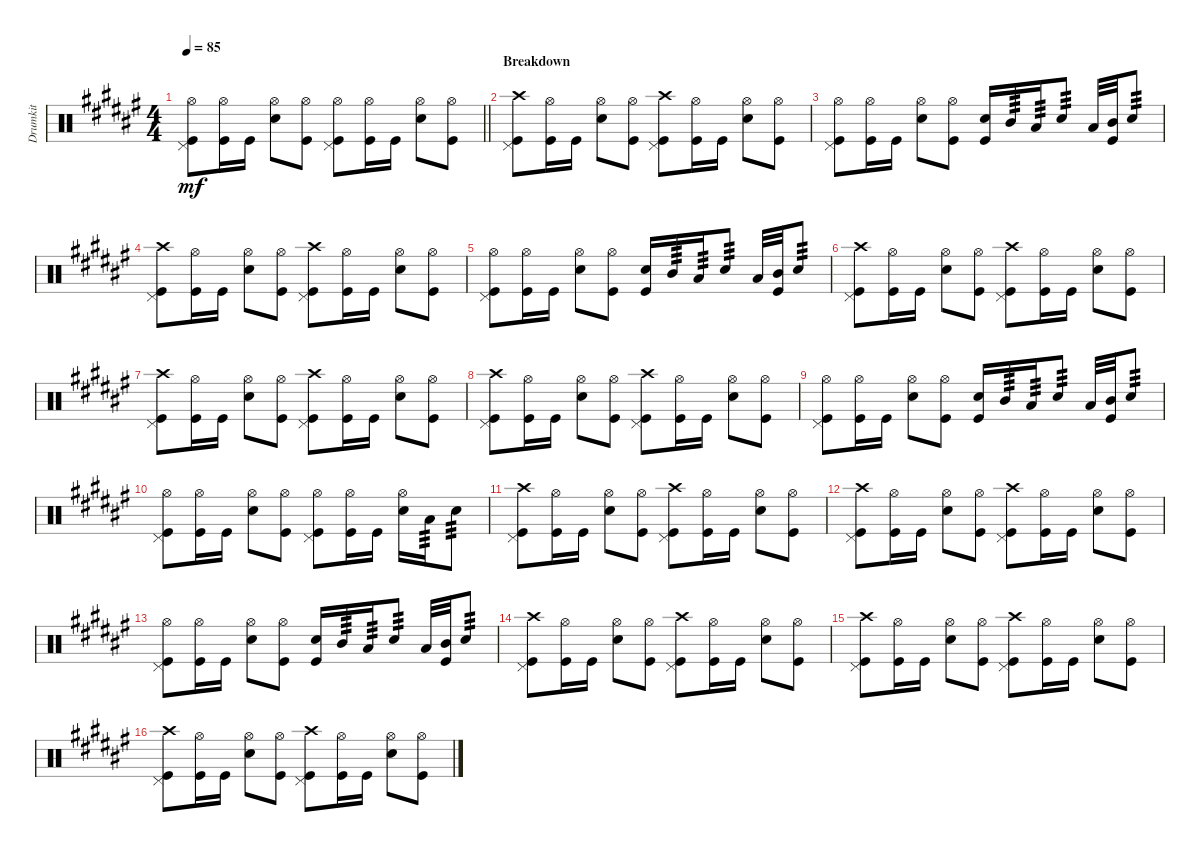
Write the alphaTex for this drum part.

\track ("Drumkit" "Drumkit") {instrument percussion}
\staff {score}
\articulation defaults
\ts (4 4)
\tempo 85
\clef neutral
\barLineRight lightlight
\ks f#
("Kick (hit)" "Pedal Hi-Hat (hit)" "Hi-Hat (open)").8{dy mf} ("Kick (hit)" "Hi-Hat (open)").16 "Kick (hit)".16 ("Snare (hit) 2" "Hi-Hat (open)").8 ("Kick (hit)" "Hi-Hat (open)").8 ("Kick (hit)" "Pedal Hi-Hat (hit)" "Hi-Hat (open)").8 ("Kick (hit)" "Hi-Hat (open)").16 "Kick (hit)".16 ("Snare (hit) 2" "Hi-Hat (open)").8 ("Kick (hit)" "Hi-Hat (open)").8 |
\section ("" "Breakdown")
("Kick (hit)" "Pedal Hi-Hat (hit)" "Crash high (hit)").8 ("Kick (hit)" "Hi-Hat (open)").16 "Kick (hit)".16 ("Snare (hit) 2" "Hi-Hat (open)").8 ("Kick (hit)" "Hi-Hat (open)").8 ("Kick (hit)" "Pedal Hi-Hat (hit)" "Crash high (hit)").8 ("Kick (hit)" "Hi-Hat (open)").16 "Kick (hit)".16 ("Snare (hit) 2" "Hi-Hat (open)").8 ("Kick (hit)" "Hi-Hat (open)").8 |
("Kick (hit)" "Pedal Hi-Hat (hit)" "Hi-Hat (open)").8 ("Kick (hit)" "Hi-Hat (open)").16 "Kick (hit)".16 ("Snare (hit) 2" "Hi-Hat (open)").8 ("Kick (hit)" "Hi-Hat (open)").8 ("Snare (hit) 2" "Kick (hit)").16 "Mid Tom (hit)".16{tp 3} "Low Tom (hit)".16{tp 3} "Snare (hit) 2".8{tp 3} "Low Tom (hit)".32 ("Kick (hit)" "Mid Tom (hit)").32 "Snare (hit) 2".8{tp 3} |
("Kick (hit)" "Pedal Hi-Hat (hit)" "Crash high (hit)").8 ("Kick (hit)" "Hi-Hat (open)").16 "Kick (hit)".16 ("Snare (hit) 2" "Hi-Hat (open)").8 ("Kick (hit)" "Hi-Hat (open)").8 ("Kick (hit)" "Pedal Hi-Hat (hit)" "Crash high (hit)").8 ("Kick (hit)" "Hi-Hat (open)").16 "Kick (hit)".16 ("Snare (hit) 2" "Hi-Hat (open)").8 ("Kick (hit)" "Hi-Hat (open)").8 |
("Kick (hit)" "Pedal Hi-Hat (hit)" "Hi-Hat (open)").8 ("Kick (hit)" "Hi-Hat (open)").16 "Kick (hit)".16 ("Snare (hit) 2" "Hi-Hat (open)").8 ("Kick (hit)" "Hi-Hat (open)").8 ("Snare (hit) 2" "Kick (hit)").16 "Mid Tom (hit)".16{tp 3} "Low Tom (hit)".16{tp 3} "Snare (hit) 2".8{tp 3} "Low Tom (hit)".32 ("Kick (hit)" "Mid Tom (hit)").32 "Snare (hit) 2".8{tp 3} |
("Kick (hit)" "Pedal Hi-Hat (hit)" "Crash high (hit)").8 ("Kick (hit)" "Hi-Hat (open)").16 "Kick (hit)".16 ("Snare (hit) 2" "Hi-Hat (open)").8 ("Kick (hit)" "Hi-Hat (open)").8 ("Kick (hit)" "Pedal Hi-Hat (hit)" "Crash high (hit)").8 ("Kick (hit)" "Hi-Hat (open)").16 "Kick (hit)".16 ("Snare (hit) 2" "Hi-Hat (open)").8 ("Kick (hit)" "Hi-Hat (open)").8 |
("Kick (hit)" "Pedal Hi-Hat (hit)" "Crash high (hit)").8 ("Kick (hit)" "Hi-Hat (open)").16 "Kick (hit)".16 ("Snare (hit) 2" "Hi-Hat (open)").8 ("Kick (hit)" "Hi-Hat (open)").8 ("Kick (hit)" "Pedal Hi-Hat (hit)" "Crash high (hit)").8 ("Kick (hit)" "Hi-Hat (open)").16 "Kick (hit)".16 ("Snare (hit) 2" "Hi-Hat (open)").8 ("Kick (hit)" "Hi-Hat (open)").8 |
("Kick (hit)" "Pedal Hi-Hat (hit)" "Crash high (hit)").8 ("Kick (hit)" "Hi-Hat (open)").16 "Kick (hit)".16 ("Snare (hit) 2" "Hi-Hat (open)").8 ("Kick (hit)" "Hi-Hat (open)").8 ("Kick (hit)" "Pedal Hi-Hat (hit)" "Crash high (hit)").8 ("Kick (hit)" "Hi-Hat (open)").16 "Kick (hit)".16 ("Snare (hit) 2" "Hi-Hat (open)").8 ("Kick (hit)" "Hi-Hat (open)").8 |
("Kick (hit)" "Pedal Hi-Hat (hit)" "Hi-Hat (open)").8 ("Kick (hit)" "Hi-Hat (open)").16 "Kick (hit)".16 ("Snare (hit) 2" "Hi-Hat (open)").8 ("Kick (hit)" "Hi-Hat (open)").8 ("Snare (hit) 2" "Kick (hit)").16 "Mid Tom (hit)".16{tp 3} "Low Tom (hit)".16{tp 3} "Snare (hit) 2".8{tp 3} "Low Tom (hit)".32 ("Kick (hit)" "Mid Tom (hit)").32 "Snare (hit) 2".8{tp 3} |
("Kick (hit)" "Pedal Hi-Hat (hit)" "Hi-Hat (open)").8 ("Kick (hit)" "Hi-Hat (open)").16 "Kick (hit)".16 ("Snare (hit) 2" "Hi-Hat (open)").8 ("Kick (hit)" "Hi-Hat (open)").8 ("Kick (hit)" "Pedal Hi-Hat (hit)" "Hi-Hat (open)").8 ("Kick (hit)" "Hi-Hat (open)").16 "Kick (hit)".16 ("Snare (hit) 2" "Hi-Hat (open)").16 "Low Tom (hit)".16{tp 3} "Snare (hit) 2".8{tp 3} |
("Kick (hit)" "Pedal Hi-Hat (hit)" "Crash high (hit)").8 ("Kick (hit)" "Hi-Hat (open)").16 "Kick (hit)".16 ("Snare (hit) 2" "Hi-Hat (open)").8 ("Kick (hit)" "Hi-Hat (open)").8 ("Kick (hit)" "Pedal Hi-Hat (hit)" "Crash high (hit)").8 ("Kick (hit)" "Hi-Hat (open)").16 "Kick (hit)".16 ("Snare (hit) 2" "Hi-Hat (open)").8 ("Kick (hit)" "Hi-Hat (open)").8 |
("Kick (hit)" "Pedal Hi-Hat (hit)" "Crash high (hit)").8 ("Kick (hit)" "Hi-Hat (open)").16 "Kick (hit)".16 ("Snare (hit) 2" "Hi-Hat (open)").8 ("Kick (hit)" "Hi-Hat (open)").8 ("Kick (hit)" "Pedal Hi-Hat (hit)" "Crash high (hit)").8 ("Kick (hit)" "Hi-Hat (open)").16 "Kick (hit)".16 ("Snare (hit) 2" "Hi-Hat (open)").8 ("Kick (hit)" "Hi-Hat (open)").8 |
("Kick (hit)" "Pedal Hi-Hat (hit)" "Hi-Hat (open)").8 ("Kick (hit)" "Hi-Hat (open)").16 "Kick (hit)".16 ("Snare (hit) 2" "Hi-Hat (open)").8 ("Kick (hit)" "Hi-Hat (open)").8 ("Snare (hit) 2" "Kick (hit)").16 "Mid Tom (hit)".16{tp 3} "Low Tom (hit)".16{tp 3} "Snare (hit) 2".8{tp 3} "Low Tom (hit)".32 ("Kick (hit)" "Mid Tom (hit)").32 "Snare (hit) 2".8{tp 3} |
("Kick (hit)" "Pedal Hi-Hat (hit)" "Crash high (hit)").8 ("Kick (hit)" "Hi-Hat (open)").16 "Kick (hit)".16 ("Snare (hit) 2" "Hi-Hat (open)").8 ("Kick (hit)" "Hi-Hat (open)").8 ("Kick (hit)" "Pedal Hi-Hat (hit)" "Crash high (hit)").8 ("Kick (hit)" "Hi-Hat (open)").16 "Kick (hit)".16 ("Snare (hit) 2" "Hi-Hat (open)").8 ("Kick (hit)" "Hi-Hat (open)").8 |
("Kick (hit)" "Pedal Hi-Hat (hit)" "Crash high (hit)").8 ("Kick (hit)" "Hi-Hat (open)").16 "Kick (hit)".16 ("Snare (hit) 2" "Hi-Hat (open)").8 ("Kick (hit)" "Hi-Hat (open)").8 ("Kick (hit)" "Pedal Hi-Hat (hit)" "Crash high (hit)").8 ("Kick (hit)" "Hi-Hat (open)").16 "Kick (hit)".16 ("Snare (hit) 2" "Hi-Hat (open)").8 ("Kick (hit)" "Hi-Hat (open)").8 |
("Kick (hit)" "Pedal Hi-Hat (hit)" "Crash high (hit)").8 ("Kick (hit)" "Hi-Hat (open)").16 "Kick (hit)".16 ("Snare (hit) 2" "Hi-Hat (open)").8 ("Kick (hit)" "Hi-Hat (open)").8 ("Kick (hit)" "Pedal Hi-Hat (hit)" "Crash high (hit)").8 ("Kick (hit)" "Hi-Hat (open)").16 "Kick (hit)".16 ("Snare (hit) 2" "Hi-Hat (open)").8 ("Kick (hit)" "Hi-Hat (open)").8
